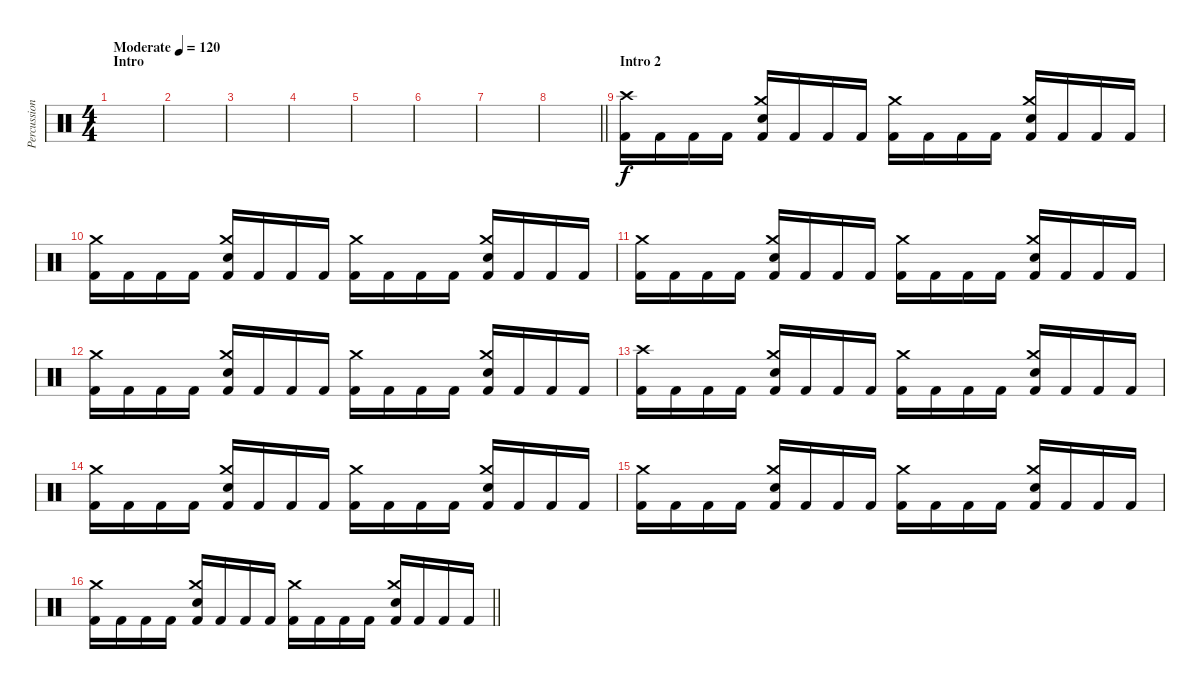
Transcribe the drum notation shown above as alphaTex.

\track ("Percussion" "Percussion") {instrument percussion}
\staff {score}
\articulation defaults
\ts (4 4)
\section ("" "Intro")
\tempo (120 "Moderate")
\clef neutral
\ks c
|
|
|
|
|
|
|
\barLineRight lightlight
|
\section ("" "Intro 2")
("Crash high (hit)" "Kick (hit) 2").16 "Kick (hit) 2".16 "Kick (hit) 2".16 "Kick (hit) 2".16 ("Crash medium (hit)" "Electric Snare (hit)" "Kick (hit) 2").16 "Kick (hit) 2".16 "Kick (hit) 2".16 "Kick (hit) 2".16 ("Crash medium (hit)" "Kick (hit) 2").16 "Kick (hit) 2".16 "Kick (hit) 2".16 "Kick (hit) 2".16 ("Crash medium (hit)" "Electric Snare (hit)" "Kick (hit) 2").16 "Kick (hit) 2".16 "Kick (hit) 2".16 "Kick (hit) 2".16 |
("Crash medium (hit)" "Kick (hit) 2").16 "Kick (hit) 2".16 "Kick (hit) 2".16 "Kick (hit) 2".16 ("Crash medium (hit)" "Electric Snare (hit)" "Kick (hit) 2").16 "Kick (hit) 2".16 "Kick (hit) 2".16 "Kick (hit) 2".16 ("Crash medium (hit)" "Kick (hit) 2").16 "Kick (hit) 2".16 "Kick (hit) 2".16 "Kick (hit) 2".16 ("Crash medium (hit)" "Electric Snare (hit)" "Kick (hit) 2").16 "Kick (hit) 2".16 "Kick (hit) 2".16 "Kick (hit) 2".16 |
("Crash medium (hit)" "Kick (hit) 2").16 "Kick (hit) 2".16 "Kick (hit) 2".16 "Kick (hit) 2".16 ("Crash medium (hit)" "Electric Snare (hit)" "Kick (hit) 2").16 "Kick (hit) 2".16 "Kick (hit) 2".16 "Kick (hit) 2".16 ("Crash medium (hit)" "Kick (hit) 2").16 "Kick (hit) 2".16 "Kick (hit) 2".16 "Kick (hit) 2".16 ("Crash medium (hit)" "Electric Snare (hit)" "Kick (hit) 2").16 "Kick (hit) 2".16 "Kick (hit) 2".16 "Kick (hit) 2".16 |
("Crash medium (hit)" "Kick (hit) 2").16 "Kick (hit) 2".16 "Kick (hit) 2".16 "Kick (hit) 2".16 ("Crash medium (hit)" "Electric Snare (hit)" "Kick (hit) 2").16 "Kick (hit) 2".16 "Kick (hit) 2".16 "Kick (hit) 2".16 ("Crash medium (hit)" "Kick (hit) 2").16 "Kick (hit) 2".16 "Kick (hit) 2".16 "Kick (hit) 2".16 ("Crash medium (hit)" "Electric Snare (hit)" "Kick (hit) 2").16 "Kick (hit) 2".16 "Kick (hit) 2".16 "Kick (hit) 2".16 |
("Crash high (hit)" "Kick (hit) 2").16 "Kick (hit) 2".16 "Kick (hit) 2".16 "Kick (hit) 2".16 ("Crash medium (hit)" "Electric Snare (hit)" "Kick (hit) 2").16 "Kick (hit) 2".16 "Kick (hit) 2".16 "Kick (hit) 2".16 ("Crash medium (hit)" "Kick (hit) 2").16 "Kick (hit) 2".16 "Kick (hit) 2".16 "Kick (hit) 2".16 ("Crash medium (hit)" "Electric Snare (hit)" "Kick (hit) 2").16 "Kick (hit) 2".16 "Kick (hit) 2".16 "Kick (hit) 2".16 |
("Crash medium (hit)" "Kick (hit) 2").16 "Kick (hit) 2".16 "Kick (hit) 2".16 "Kick (hit) 2".16 ("Crash medium (hit)" "Electric Snare (hit)" "Kick (hit) 2").16 "Kick (hit) 2".16 "Kick (hit) 2".16 "Kick (hit) 2".16 ("Crash medium (hit)" "Kick (hit) 2").16 "Kick (hit) 2".16 "Kick (hit) 2".16 "Kick (hit) 2".16 ("Crash medium (hit)" "Electric Snare (hit)" "Kick (hit) 2").16 "Kick (hit) 2".16 "Kick (hit) 2".16 "Kick (hit) 2".16 |
("Crash medium (hit)" "Kick (hit) 2").16 "Kick (hit) 2".16 "Kick (hit) 2".16 "Kick (hit) 2".16 ("Crash medium (hit)" "Electric Snare (hit)" "Kick (hit) 2").16 "Kick (hit) 2".16 "Kick (hit) 2".16 "Kick (hit) 2".16 ("Crash medium (hit)" "Kick (hit) 2").16 "Kick (hit) 2".16 "Kick (hit) 2".16 "Kick (hit) 2".16 ("Crash medium (hit)" "Electric Snare (hit)" "Kick (hit) 2").16 "Kick (hit) 2".16 "Kick (hit) 2".16 "Kick (hit) 2".16 |
\barLineRight lightlight
("Crash medium (hit)" "Kick (hit) 2").16 "Kick (hit) 2".16 "Kick (hit) 2".16 "Kick (hit) 2".16 ("Crash medium (hit)" "Electric Snare (hit)" "Kick (hit) 2").16 "Kick (hit) 2".16 "Kick (hit) 2".16 "Kick (hit) 2".16 ("Crash medium (hit)" "Kick (hit) 2").16 "Kick (hit) 2".16 "Kick (hit) 2".16 "Kick (hit) 2".16 ("Crash medium (hit)" "Electric Snare (hit)" "Kick (hit) 2").16 "Kick (hit) 2".16 "Kick (hit) 2".16 "Kick (hit) 2".16
